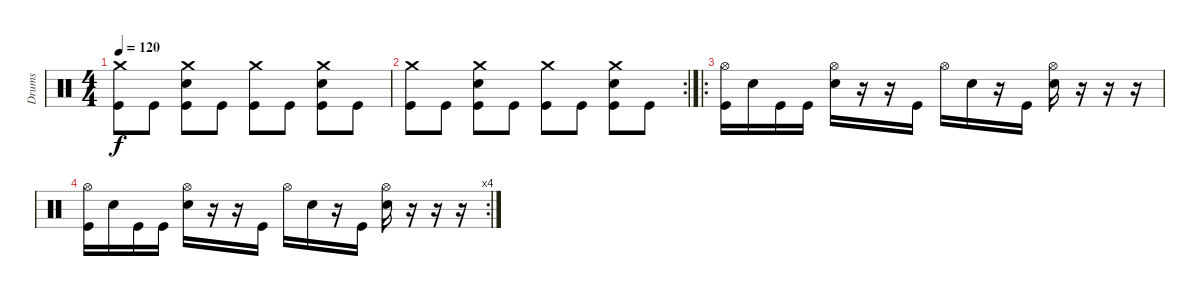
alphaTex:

\track ("Drums" "Drums") {instrument percussion}
\staff {score}
\articulation defaults
\ts (4 4)
\tempo 120
\clef neutral
\ks c
("Crash medium (hit)" "Kick (hit)").8{dy f} "Kick (hit)".8 ("Crash medium (hit)" "Snare (hit) 2" "Kick (hit)").8 "Kick (hit)".8 ("Crash medium (hit)" "Kick (hit)").8 "Kick (hit)".8 ("Crash medium (hit)" "Snare (hit) 2" "Kick (hit)").8 "Kick (hit)".8 |
\rc 2
("Crash medium (hit)" "Kick (hit)").8 "Kick (hit)".8 ("Crash medium (hit)" "Snare (hit) 2" "Kick (hit)").8 "Kick (hit)".8 ("Crash medium (hit)" "Kick (hit)").8 "Kick (hit)".8 ("Crash medium (hit)" "Snare (hit) 2" "Kick (hit)").8 "Kick (hit)".8 |
\ro
("Hi-Hat (open)" "Kick (hit)").16 "Snare (hit) 2".16 "Kick (hit)".16 "Kick (hit)".16 ("Hi-Hat (open)" "Snare (hit) 2").16 r.16 r.16 "Kick (hit)".16 "Hi-Hat (open)".16 "Snare (hit) 2".16 r.16 "Kick (hit)".16 ("Hi-Hat (open)" "Snare (hit) 2").16 r.16 r.16 r.16 |
\rc 4
("Hi-Hat (open)" "Kick (hit)").16 "Snare (hit) 2".16 "Kick (hit)".16 "Kick (hit)".16 ("Hi-Hat (open)" "Snare (hit) 2").16 r.16 r.16 "Kick (hit)".16 "Hi-Hat (open)".16 "Snare (hit) 2".16 r.16 "Kick (hit)".16 ("Hi-Hat (open)" "Snare (hit) 2").16 r.16 r.16 r.16
